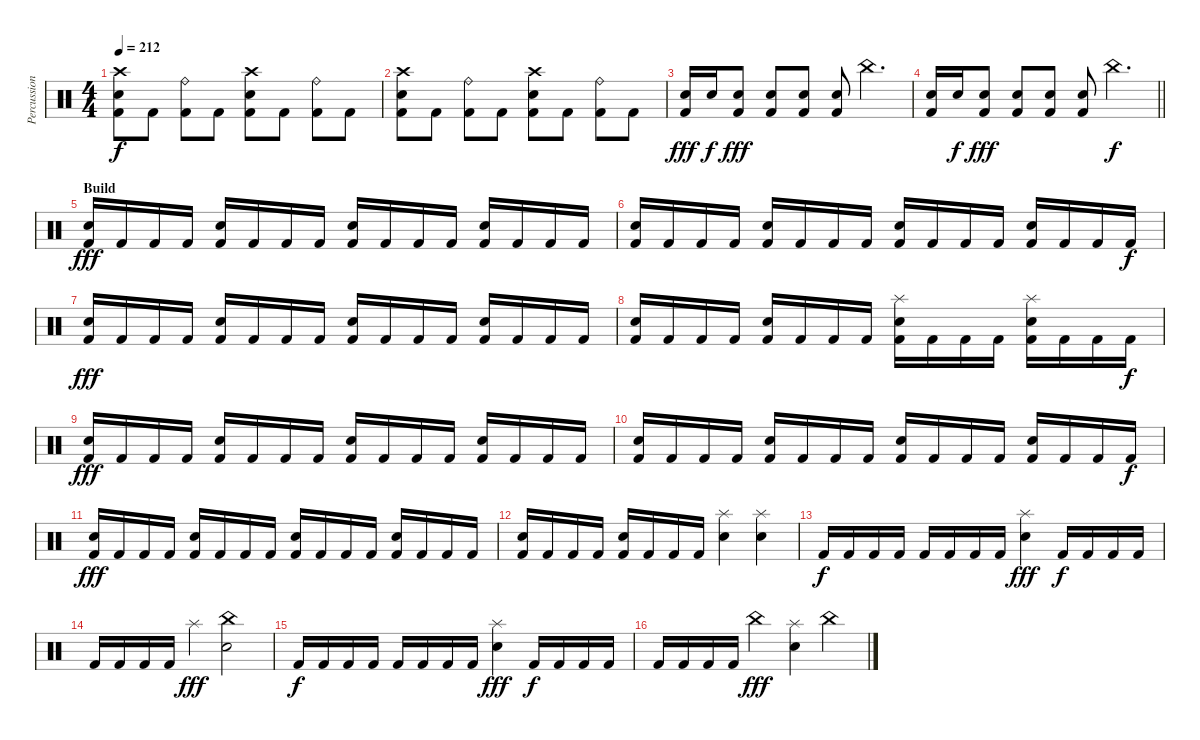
\track ("Percussion" "Percussion") {instrument percussion}
\staff {score}
\articulation defaults
\ts (4 4)
\tempo 212
\clef neutral
\ks c
("Crash high (hit)" "Electric Snare (hit)" "Kick (hit) 2").8{dy f} "Kick (hit) 2".8 ("Ride (bell)" "Kick (hit) 2").8 "Kick (hit) 2".8 ("Crash high (hit)" "Electric Snare (hit)" "Kick (hit) 2").8 "Kick (hit) 2".8 ("Ride (bell)" "Kick (hit) 2").8 "Kick (hit) 2".8 |
("Crash high (hit)" "Electric Snare (hit)" "Kick (hit) 2").8 "Kick (hit) 2".8 ("Ride (bell)" "Kick (hit) 2").8 "Kick (hit) 2".8 ("Crash high (hit)" "Electric Snare (hit)" "Kick (hit) 2").8 "Kick (hit) 2".8 ("Ride (bell)" "Kick (hit) 2").8 "Kick (hit) 2".8 |
("Electric Snare (hit)" "Kick (hit) 2").16{dy fff} "Electric Snare (hit)".16{dy f} ("Electric Snare (hit)" "Kick (hit) 2").8{dy fff} ("Electric Snare (hit)" "Kick (hit) 2").8 ("Electric Snare (hit)" "Kick (hit) 2").8 ("Electric Snare (hit)" "Kick (hit) 2").8 "China (hit)".4{d} |
\barLineRight lightlight
("Electric Snare (hit)" "Kick (hit) 2").16 "Electric Snare (hit)".16{dy f} ("Electric Snare (hit)" "Kick (hit) 2").8{dy fff} ("Electric Snare (hit)" "Kick (hit) 2").8 ("Electric Snare (hit)" "Kick (hit) 2").8 ("Electric Snare (hit)" "Kick (hit) 2").8 "China (hit)".4{d dy f} |
\section ("" "Build")
("Electric Snare (hit)" "Kick (hit) 2").16{dy fff} "Kick (hit) 2".16 "Kick (hit) 2".16 "Kick (hit) 2".16 ("Electric Snare (hit)" "Kick (hit) 2").16 "Kick (hit) 2".16 "Kick (hit) 2".16 "Kick (hit) 2".16 ("Electric Snare (hit)" "Kick (hit) 2").16 "Kick (hit) 2".16 "Kick (hit) 2".16 "Kick (hit) 2".16 ("Electric Snare (hit)" "Kick (hit) 2").16 "Kick (hit) 2".16 "Kick (hit) 2".16 "Kick (hit) 2".16 |
("Electric Snare (hit)" "Kick (hit) 2").16 "Kick (hit) 2".16 "Kick (hit) 2".16 "Kick (hit) 2".16 ("Electric Snare (hit)" "Kick (hit) 2").16 "Kick (hit) 2".16 "Kick (hit) 2".16 "Kick (hit) 2".16 ("Electric Snare (hit)" "Kick (hit) 2").16 "Kick (hit) 2".16 "Kick (hit) 2".16 "Kick (hit) 2".16 ("Electric Snare (hit)" "Kick (hit) 2").16 "Kick (hit) 2".16 "Kick (hit) 2".16 "Kick (hit) 2".16{dy f} |
("Electric Snare (hit)" "Kick (hit) 2").16{dy fff} "Kick (hit) 2".16 "Kick (hit) 2".16 "Kick (hit) 2".16 ("Electric Snare (hit)" "Kick (hit) 2").16 "Kick (hit) 2".16 "Kick (hit) 2".16 "Kick (hit) 2".16 ("Electric Snare (hit)" "Kick (hit) 2").16 "Kick (hit) 2".16 "Kick (hit) 2".16 "Kick (hit) 2".16 ("Electric Snare (hit)" "Kick (hit) 2").16 "Kick (hit) 2".16 "Kick (hit) 2".16 "Kick (hit) 2".16 |
("Electric Snare (hit)" "Kick (hit) 2").16 "Kick (hit) 2".16 "Kick (hit) 2".16 "Kick (hit) 2".16 ("Electric Snare (hit)" "Kick (hit) 2").16 "Kick (hit) 2".16 "Kick (hit) 2".16 "Kick (hit) 2".16 ("Splash (hit)" "Electric Snare (hit)" "Kick (hit) 2").16 "Kick (hit) 2".16 "Kick (hit) 2".16 "Kick (hit) 2".16 ("Splash (hit)" "Electric Snare (hit)" "Kick (hit) 2").16 "Kick (hit) 2".16 "Kick (hit) 2".16 "Kick (hit) 2".16{dy f} |
("Electric Snare (hit)" "Kick (hit) 2").16{dy fff} "Kick (hit) 2".16 "Kick (hit) 2".16 "Kick (hit) 2".16 ("Electric Snare (hit)" "Kick (hit) 2").16 "Kick (hit) 2".16 "Kick (hit) 2".16 "Kick (hit) 2".16 ("Electric Snare (hit)" "Kick (hit) 2").16 "Kick (hit) 2".16 "Kick (hit) 2".16 "Kick (hit) 2".16 ("Electric Snare (hit)" "Kick (hit) 2").16 "Kick (hit) 2".16 "Kick (hit) 2".16 "Kick (hit) 2".16 |
("Electric Snare (hit)" "Kick (hit) 2").16 "Kick (hit) 2".16 "Kick (hit) 2".16 "Kick (hit) 2".16 ("Electric Snare (hit)" "Kick (hit) 2").16 "Kick (hit) 2".16 "Kick (hit) 2".16 "Kick (hit) 2".16 ("Electric Snare (hit)" "Kick (hit) 2").16 "Kick (hit) 2".16 "Kick (hit) 2".16 "Kick (hit) 2".16 ("Electric Snare (hit)" "Kick (hit) 2").16 "Kick (hit) 2".16 "Kick (hit) 2".16 "Kick (hit) 2".16{dy f} |
("Electric Snare (hit)" "Kick (hit) 2").16{dy fff} "Kick (hit) 2".16 "Kick (hit) 2".16 "Kick (hit) 2".16 ("Electric Snare (hit)" "Kick (hit) 2").16 "Kick (hit) 2".16 "Kick (hit) 2".16 "Kick (hit) 2".16 ("Electric Snare (hit)" "Kick (hit) 2").16 "Kick (hit) 2".16 "Kick (hit) 2".16 "Kick (hit) 2".16 ("Electric Snare (hit)" "Kick (hit) 2").16 "Kick (hit) 2".16 "Kick (hit) 2".16 "Kick (hit) 2".16 |
("Electric Snare (hit)" "Kick (hit) 2").16 "Kick (hit) 2".16 "Kick (hit) 2".16 "Kick (hit) 2".16 ("Electric Snare (hit)" "Kick (hit) 2").16 "Kick (hit) 2".16 "Kick (hit) 2".16 "Kick (hit) 2".16 ("Splash (hit)" "Electric Snare (hit)").4 ("Splash (hit)" "Electric Snare (hit)").4 |
"Kick (hit) 2".16{dy f} "Kick (hit) 2".16 "Kick (hit) 2".16 "Kick (hit) 2".16 "Kick (hit) 2".16 "Kick (hit) 2".16 "Kick (hit) 2".16 "Kick (hit) 2".16 ("Splash (hit)" "Electric Snare (hit)").4{dy fff} "Kick (hit) 2".16{dy f} "Kick (hit) 2".16 "Kick (hit) 2".16 "Kick (hit) 2".16 |
"Kick (hit) 2".16 "Kick (hit) 2".16 "Kick (hit) 2".16 "Kick (hit) 2".16 "Splash (hit)".4{dy fff} ("China (hit)" "Electric Snare (hit)").2 |
"Kick (hit) 2".16{dy f} "Kick (hit) 2".16 "Kick (hit) 2".16 "Kick (hit) 2".16 "Kick (hit) 2".16 "Kick (hit) 2".16 "Kick (hit) 2".16 "Kick (hit) 2".16 ("Splash (hit)" "Electric Snare (hit)").4{dy fff} "Kick (hit) 2".16{dy f} "Kick (hit) 2".16 "Kick (hit) 2".16 "Kick (hit) 2".16 |
"Kick (hit) 2".16 "Kick (hit) 2".16 "Kick (hit) 2".16 "Kick (hit) 2".16 "China (hit)".4{dy fff} ("Splash (hit)" "Electric Snare (hit)").4 "China (hit)".4
